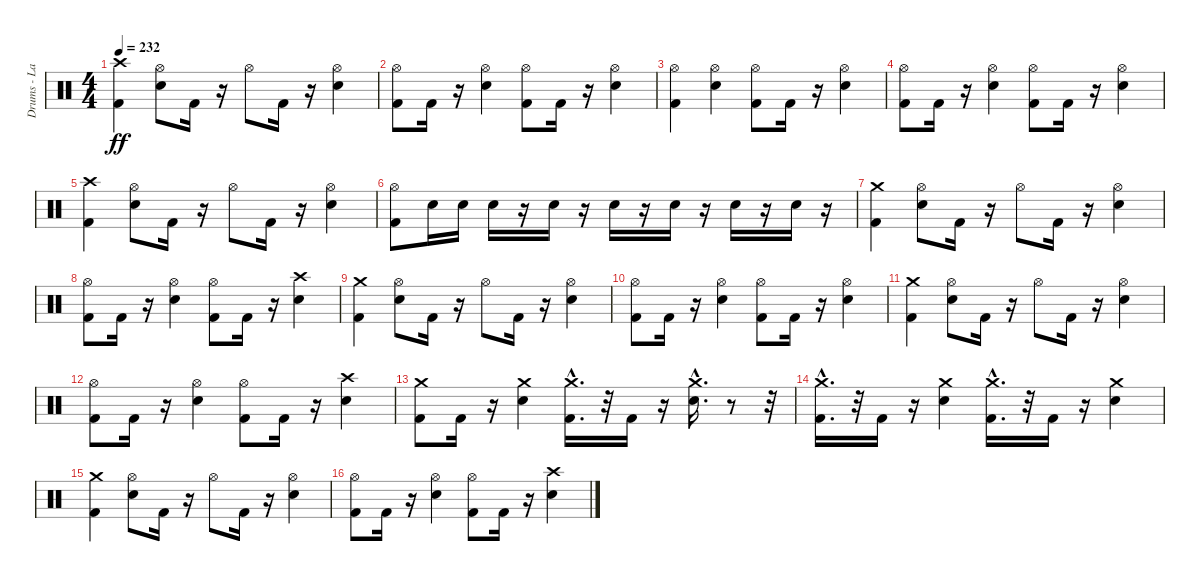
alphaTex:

\track ("Drums - Larzon" "Drums - La") {instrument percussion}
\staff {score}
\articulation defaults
\ts (4 4)
\tempo 232
\clef neutral
\ks c
("Kick (hit) 2" "Crash high (hit)").4{dy ff} ("Hi-Hat (open)" "Electric Snare (hit)").8 "Kick (hit) 2".16 r.16 "Hi-Hat (open)".8 "Kick (hit) 2".16 r.16 ("Electric Snare (hit)" "Hi-Hat (open)").4 |
("Kick (hit) 2" "Hi-Hat (open)").8 "Kick (hit) 2".16 r.16 ("Electric Snare (hit)" "Hi-Hat (open)").4 ("Kick (hit) 2" "Hi-Hat (open)").8 "Kick (hit) 2".16 r.16 ("Electric Snare (hit)" "Hi-Hat (open)").4 |
("Kick (hit) 2" "Hi-Hat (open)").4 ("Hi-Hat (open)" "Electric Snare (hit)").4 ("Hi-Hat (open)" "Kick (hit) 2").8 "Kick (hit) 2".16 r.16 ("Electric Snare (hit)" "Hi-Hat (open)").4 |
("Kick (hit) 2" "Hi-Hat (open)").8 "Kick (hit) 2".16 r.16 ("Electric Snare (hit)" "Hi-Hat (open)").4 ("Kick (hit) 2" "Hi-Hat (open)").8 "Kick (hit) 2".16 r.16 ("Electric Snare (hit)" "Hi-Hat (open)").4 |
("Crash high (hit)" "Kick (hit) 2").4 ("Hi-Hat (open)" "Electric Snare (hit)").8 "Kick (hit) 2".16 r.16 "Hi-Hat (open)".8 "Kick (hit) 2".16 r.16 ("Hi-Hat (open)" "Electric Snare (hit)").4 |
("Hi-Hat (open)" "Kick (hit) 2").8 "Electric Snare (hit)".16 "Electric Snare (hit)".16 "Electric Snare (hit)".16 r.16 "Electric Snare (hit)".16 r.16 "Electric Snare (hit)".16 r.16 "Electric Snare (hit)".16 r.16 "Electric Snare (hit)".16 r.16 "Electric Snare (hit)".16 r.16 |
("Kick (hit) 2" "Crash medium (hit)").4 ("Electric Snare (hit)" "Hi-Hat (open)").8 "Kick (hit) 2".16 r.16 "Hi-Hat (open)".8 "Kick (hit) 2".16 r.16 ("Electric Snare (hit)" "Hi-Hat (open)").4 |
("Kick (hit) 2" "Hi-Hat (open)").8 "Kick (hit) 2".16 r.16 ("Electric Snare (hit)" "Hi-Hat (open)").4 ("Kick (hit) 2" "Hi-Hat (open)").8 "Kick (hit) 2".16 r.16 ("Electric Snare (hit)" "Crash high (hit)").4 |
("Kick (hit) 2" "Crash medium (hit)").4 ("Electric Snare (hit)" "Hi-Hat (open)").8 "Kick (hit) 2".16 r.16 "Hi-Hat (open)".8 "Kick (hit) 2".16 r.16 ("Electric Snare (hit)" "Hi-Hat (open)").4 |
("Kick (hit) 2" "Hi-Hat (open)").8 "Kick (hit) 2".16 r.16 ("Electric Snare (hit)" "Hi-Hat (open)").4 ("Kick (hit) 2" "Hi-Hat (open)").8 "Kick (hit) 2".16 r.16 ("Electric Snare (hit)" "Hi-Hat (open)").4 |
("Kick (hit) 2" "Crash medium (hit)").4 ("Electric Snare (hit)" "Hi-Hat (open)").8 "Kick (hit) 2".16 r.16 "Hi-Hat (open)".8 "Kick (hit) 2".16 r.16 ("Electric Snare (hit)" "Hi-Hat (open)").4 |
("Kick (hit) 2" "Hi-Hat (open)").8 "Kick (hit) 2".16 r.16 ("Electric Snare (hit)" "Hi-Hat (open)").4 ("Kick (hit) 2" "Hi-Hat (open)").8 "Kick (hit) 2".16 r.16 ("Electric Snare (hit)" "Crash high (hit)").4 |
("Kick (hit) 2" "Crash medium (hit)").8 "Kick (hit) 2".16 r.16 ("Electric Snare (hit)" "Crash medium (hit)").4 ("Crash medium (hit)"{hac} "Kick (hit) 2").16{d} r.32 "Kick (hit) 2".16 r.16 ("Electric Snare (hit)" "Crash medium (hit)"{hac}).16{d} r.8 r.32 |
("Kick (hit) 2" "Crash medium (hit)"{hac}).16{d} r.32 "Kick (hit) 2".16 r.16 ("Electric Snare (hit)" "Crash medium (hit)").4 ("Kick (hit) 2" "Crash medium (hit)"{hac}).16{d} r.32 "Kick (hit) 2".16 r.16 ("Electric Snare (hit)" "Crash medium (hit)").4 |
("Kick (hit) 2" "Crash medium (hit)").4 ("Electric Snare (hit)" "Hi-Hat (open)").8 "Kick (hit) 2".16 r.16 "Hi-Hat (open)".8 "Kick (hit) 2".16 r.16 ("Electric Snare (hit)" "Hi-Hat (open)").4 |
("Kick (hit) 2" "Hi-Hat (open)").8 "Kick (hit) 2".16 r.16 ("Electric Snare (hit)" "Hi-Hat (open)").4 ("Kick (hit) 2" "Hi-Hat (open)").8 "Kick (hit) 2".16 r.16 ("Electric Snare (hit)" "Crash high (hit)").4
